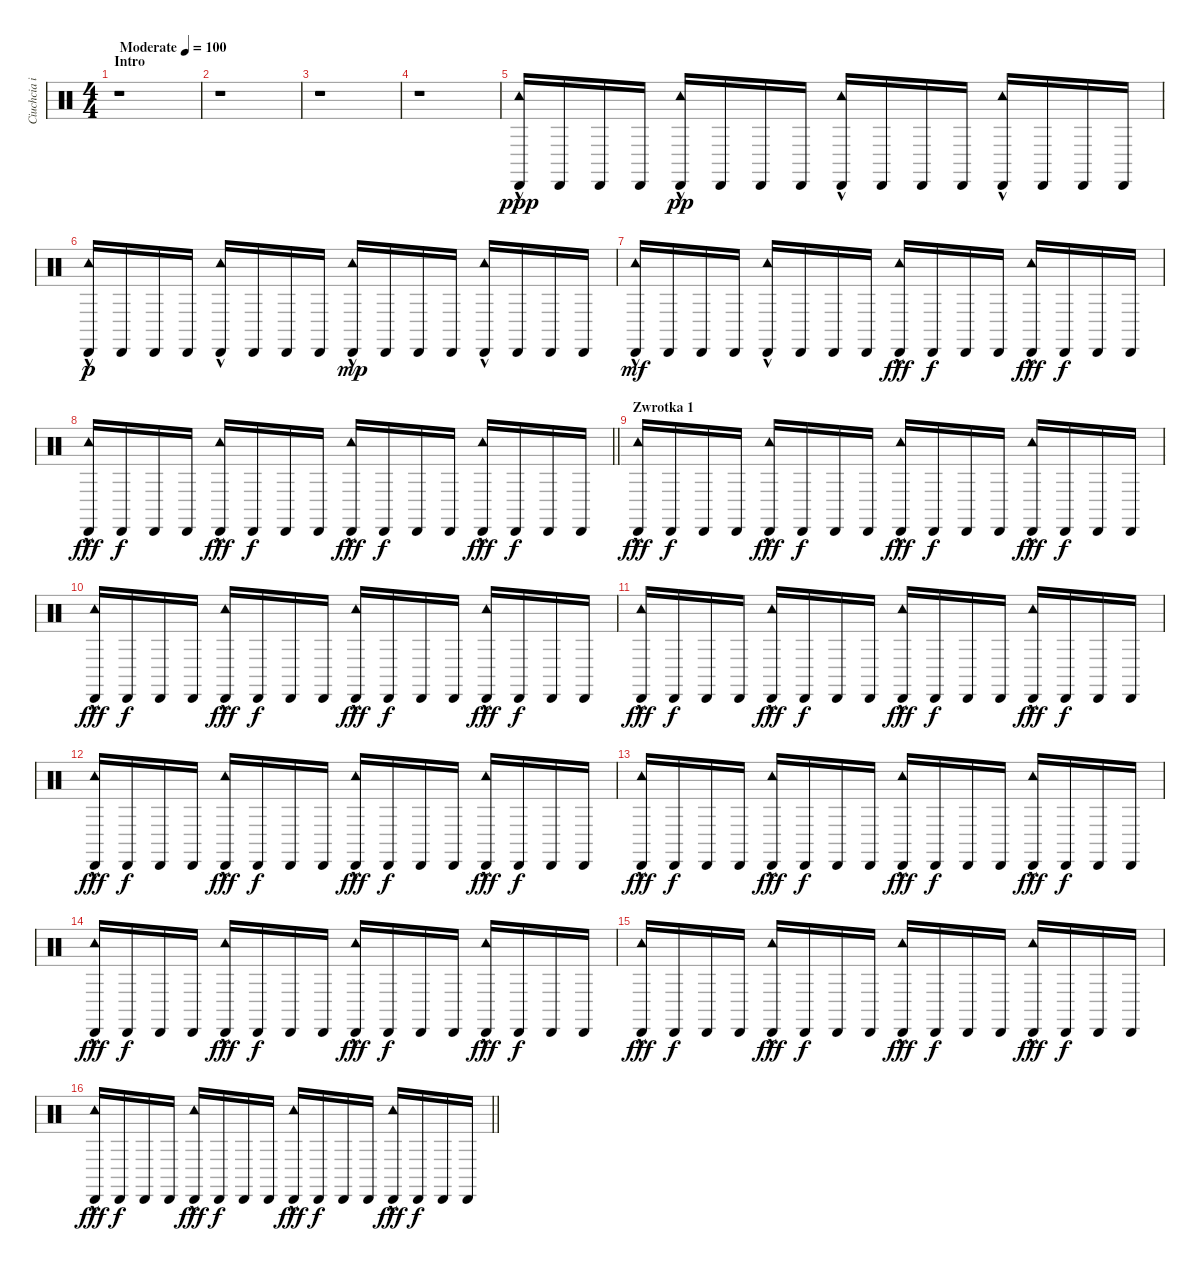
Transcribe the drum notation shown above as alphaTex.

\track ("Ciuchcia i Werbel" "Ciuchcia i") {instrument percussion}
\staff {score}
\articulation defaults
\ts (4 4)
\section ("" "Intro")
\tempo (100 "Moderate")
\clef neutral
\ks c
r.1{dy ppp} |
r.1 |
r.1 |
r.1 |
("Cabasa (hit)" "Tambourine (hit)"{hac}).16{balance 16} "Cabasa (hit)".16 "Cabasa (hit)".16 "Cabasa (hit)".16 ("Cabasa (hit)" "Tambourine (hit)"{hac}).16{dy pp} "Cabasa (hit)".16 "Cabasa (hit)".16 "Cabasa (hit)".16 ("Cabasa (hit)" "Tambourine (hit)"{hac}).16{balance 15} "Cabasa (hit)".16 "Cabasa (hit)".16 "Cabasa (hit)".16 ("Cabasa (hit)" "Tambourine (hit)"{hac}).16 "Cabasa (hit)".16 "Cabasa (hit)".16 "Cabasa (hit)".16 |
("Cabasa (hit)" "Tambourine (hit)"{hac}).16{dy p balance 14} "Cabasa (hit)".16 "Cabasa (hit)".16 "Cabasa (hit)".16 ("Cabasa (hit)" "Tambourine (hit)"{hac}).16 "Cabasa (hit)".16 "Cabasa (hit)".16 "Cabasa (hit)".16 ("Cabasa (hit)" "Tambourine (hit)"{hac}).16{dy mp balance 13} "Cabasa (hit)".16 "Cabasa (hit)".16 "Cabasa (hit)".16 ("Cabasa (hit)" "Tambourine (hit)"{hac}).16 "Cabasa (hit)".16 "Cabasa (hit)".16 "Cabasa (hit)".16 |
("Cabasa (hit)" "Tambourine (hit)"{hac}).16{dy mf balance 12} "Cabasa (hit)".16 "Cabasa (hit)".16 "Cabasa (hit)".16 ("Cabasa (hit)" "Tambourine (hit)"{hac}).16 "Cabasa (hit)".16 "Cabasa (hit)".16 "Cabasa (hit)".16 ("Cabasa (hit)" "Tambourine (hit)"{hac}).16{dy fff balance 11} "Cabasa (hit)".16{dy f} "Cabasa (hit)".16 "Cabasa (hit)".16 ("Cabasa (hit)" "Tambourine (hit)"{hac}).16{dy fff} "Cabasa (hit)".16{dy f} "Cabasa (hit)".16 "Cabasa (hit)".16 |
\barLineRight lightlight
("Cabasa (hit)" "Tambourine (hit)"{hac}).16{dy fff balance 10} "Cabasa (hit)".16{dy f} "Cabasa (hit)".16 "Cabasa (hit)".16 ("Cabasa (hit)" "Tambourine (hit)"{hac}).16{dy fff} "Cabasa (hit)".16{dy f} "Cabasa (hit)".16 "Cabasa (hit)".16 ("Cabasa (hit)" "Tambourine (hit)"{hac}).16{dy fff balance 9} "Cabasa (hit)".16{dy f} "Cabasa (hit)".16 "Cabasa (hit)".16 ("Cabasa (hit)" "Tambourine (hit)"{hac}).16{dy fff} "Cabasa (hit)".16{dy f} "Cabasa (hit)".16 "Cabasa (hit)".16 |
\section ("" "Zwrotka 1")
("Cabasa (hit)" "Tambourine (hit)"{hac}).16{dy fff balance 8} "Cabasa (hit)".16{dy f} "Cabasa (hit)".16 "Cabasa (hit)".16 ("Cabasa (hit)" "Tambourine (hit)"{hac}).16{dy fff} "Cabasa (hit)".16{dy f} "Cabasa (hit)".16 "Cabasa (hit)".16 ("Cabasa (hit)" "Tambourine (hit)"{hac}).16{dy fff} "Cabasa (hit)".16{dy f} "Cabasa (hit)".16 "Cabasa (hit)".16 ("Cabasa (hit)" "Tambourine (hit)"{hac}).16{dy fff} "Cabasa (hit)".16{dy f} "Cabasa (hit)".16 "Cabasa (hit)".16 |
("Cabasa (hit)" "Tambourine (hit)"{hac}).16{dy fff} "Cabasa (hit)".16{dy f} "Cabasa (hit)".16 "Cabasa (hit)".16 ("Cabasa (hit)" "Tambourine (hit)"{hac}).16{dy fff} "Cabasa (hit)".16{dy f} "Cabasa (hit)".16 "Cabasa (hit)".16 ("Cabasa (hit)" "Tambourine (hit)"{hac}).16{dy fff} "Cabasa (hit)".16{dy f} "Cabasa (hit)".16 "Cabasa (hit)".16 ("Cabasa (hit)" "Tambourine (hit)"{hac}).16{dy fff} "Cabasa (hit)".16{dy f} "Cabasa (hit)".16 "Cabasa (hit)".16 |
("Cabasa (hit)" "Tambourine (hit)"{hac}).16{dy fff} "Cabasa (hit)".16{dy f} "Cabasa (hit)".16 "Cabasa (hit)".16 ("Cabasa (hit)" "Tambourine (hit)"{hac}).16{dy fff} "Cabasa (hit)".16{dy f} "Cabasa (hit)".16 "Cabasa (hit)".16 ("Cabasa (hit)" "Tambourine (hit)"{hac}).16{dy fff} "Cabasa (hit)".16{dy f} "Cabasa (hit)".16 "Cabasa (hit)".16 ("Cabasa (hit)" "Tambourine (hit)"{hac}).16{dy fff} "Cabasa (hit)".16{dy f} "Cabasa (hit)".16 "Cabasa (hit)".16 |
("Cabasa (hit)" "Tambourine (hit)"{hac}).16{dy fff} "Cabasa (hit)".16{dy f} "Cabasa (hit)".16 "Cabasa (hit)".16 ("Cabasa (hit)" "Tambourine (hit)"{hac}).16{dy fff} "Cabasa (hit)".16{dy f} "Cabasa (hit)".16 "Cabasa (hit)".16 ("Cabasa (hit)" "Tambourine (hit)"{hac}).16{dy fff} "Cabasa (hit)".16{dy f} "Cabasa (hit)".16 "Cabasa (hit)".16 ("Cabasa (hit)" "Tambourine (hit)"{hac}).16{dy fff} "Cabasa (hit)".16{dy f} "Cabasa (hit)".16 "Cabasa (hit)".16 |
("Cabasa (hit)" "Tambourine (hit)"{hac}).16{dy fff} "Cabasa (hit)".16{dy f} "Cabasa (hit)".16 "Cabasa (hit)".16 ("Cabasa (hit)" "Tambourine (hit)"{hac}).16{dy fff} "Cabasa (hit)".16{dy f} "Cabasa (hit)".16 "Cabasa (hit)".16 ("Cabasa (hit)" "Tambourine (hit)"{hac}).16{dy fff} "Cabasa (hit)".16{dy f} "Cabasa (hit)".16 "Cabasa (hit)".16 ("Cabasa (hit)" "Tambourine (hit)"{hac}).16{dy fff} "Cabasa (hit)".16{dy f} "Cabasa (hit)".16 "Cabasa (hit)".16 |
("Cabasa (hit)" "Tambourine (hit)"{hac}).16{dy fff} "Cabasa (hit)".16{dy f} "Cabasa (hit)".16 "Cabasa (hit)".16 ("Cabasa (hit)" "Tambourine (hit)"{hac}).16{dy fff} "Cabasa (hit)".16{dy f} "Cabasa (hit)".16 "Cabasa (hit)".16 ("Cabasa (hit)" "Tambourine (hit)"{hac}).16{dy fff} "Cabasa (hit)".16{dy f} "Cabasa (hit)".16 "Cabasa (hit)".16 ("Cabasa (hit)" "Tambourine (hit)"{hac}).16{dy fff} "Cabasa (hit)".16{dy f} "Cabasa (hit)".16 "Cabasa (hit)".16 |
("Cabasa (hit)" "Tambourine (hit)"{hac}).16{dy fff} "Cabasa (hit)".16{dy f} "Cabasa (hit)".16 "Cabasa (hit)".16 ("Cabasa (hit)" "Tambourine (hit)"{hac}).16{dy fff} "Cabasa (hit)".16{dy f} "Cabasa (hit)".16 "Cabasa (hit)".16 ("Cabasa (hit)" "Tambourine (hit)"{hac}).16{dy fff} "Cabasa (hit)".16{dy f} "Cabasa (hit)".16 "Cabasa (hit)".16 ("Cabasa (hit)" "Tambourine (hit)"{hac}).16{dy fff} "Cabasa (hit)".16{dy f} "Cabasa (hit)".16 "Cabasa (hit)".16 |
\barLineRight lightlight
("Cabasa (hit)" "Tambourine (hit)"{hac}).16{dy fff} "Cabasa (hit)".16{dy f} "Cabasa (hit)".16 "Cabasa (hit)".16 ("Cabasa (hit)" "Tambourine (hit)"{hac}).16{dy fff} "Cabasa (hit)".16{dy f} "Cabasa (hit)".16 "Cabasa (hit)".16 ("Cabasa (hit)" "Tambourine (hit)"{hac}).16{dy fff} "Cabasa (hit)".16{dy f} "Cabasa (hit)".16 "Cabasa (hit)".16 ("Cabasa (hit)" "Tambourine (hit)"{hac}).16{dy fff} "Cabasa (hit)".16{dy f} "Cabasa (hit)".16 "Cabasa (hit)".16
